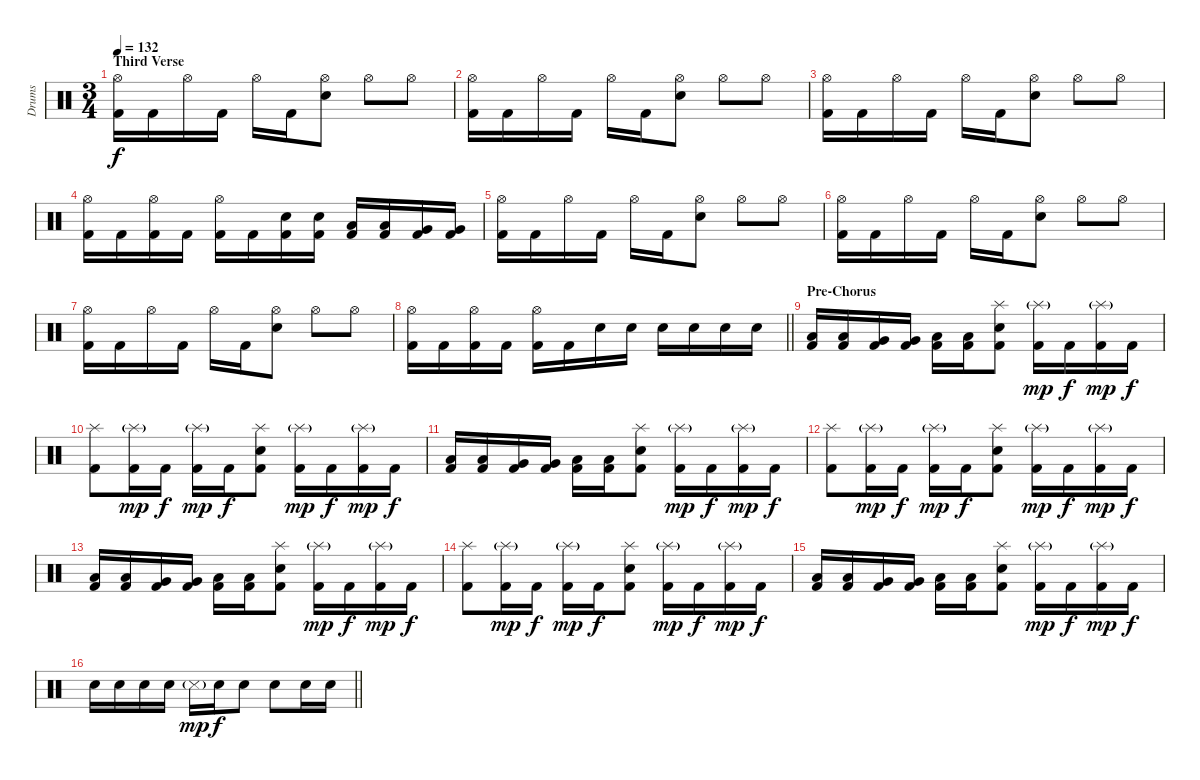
\track ("Drums" "Drums") {instrument percussion}
\staff {score}
\articulation defaults
\ts (3 4)
\section ("" "Third Verse")
\tempo 132
\clef neutral
\ks c
("Hi-Hat (open)" "Kick (hit) 2").16{dy f} "Kick (hit) 2".16 "Hi-Hat (open)".16 "Kick (hit) 2".16 "Hi-Hat (open)".16 "Kick (hit) 2".16 ("Hi-Hat (open)" "Snare (hit) 2").8 "Hi-Hat (open)".8 "Hi-Hat (open)".8 |
("Hi-Hat (open)" "Kick (hit) 2").16 "Kick (hit) 2".16 "Hi-Hat (open)".16 "Kick (hit) 2".16 "Hi-Hat (open)".16 "Kick (hit) 2".16 ("Hi-Hat (open)" "Snare (hit) 2").8 "Hi-Hat (open)".8 "Hi-Hat (open)".8 |
("Hi-Hat (open)" "Kick (hit) 2").16 "Kick (hit) 2".16 "Hi-Hat (open)".16 "Kick (hit) 2".16 "Hi-Hat (open)".16 "Kick (hit) 2".16 ("Hi-Hat (open)" "Snare (hit) 2").8 "Hi-Hat (open)".8 "Hi-Hat (open)".8 |
("Hi-Hat (open)" "Kick (hit) 2").16 "Kick (hit) 2".16 ("Hi-Hat (open)" "Kick (hit) 2").16 "Kick (hit) 2".16 ("Hi-Hat (open)" "Kick (hit) 2").16 "Kick (hit) 2".16 ("Snare (hit) 2" "Kick (hit) 2").16 ("Snare (hit) 2" "Kick (hit) 2").16 ("Low Tom (hit)" "Kick (hit) 2").16 ("Low Tom (hit)" "Kick (hit) 2").16 ("Very Low Tom (hit)" "Kick (hit) 2").16 ("Very Low Tom (hit)" "Kick (hit) 2").16 |
("Hi-Hat (open)" "Kick (hit) 2").16 "Kick (hit) 2".16 "Hi-Hat (open)".16 "Kick (hit) 2".16 "Hi-Hat (open)".16 "Kick (hit) 2".16 ("Hi-Hat (open)" "Snare (hit) 2").8 "Hi-Hat (open)".8 "Hi-Hat (open)".8 |
("Hi-Hat (open)" "Kick (hit) 2").16 "Kick (hit) 2".16 "Hi-Hat (open)".16 "Kick (hit) 2".16 "Hi-Hat (open)".16 "Kick (hit) 2".16 ("Hi-Hat (open)" "Snare (hit) 2").8 "Hi-Hat (open)".8 "Hi-Hat (open)".8 |
("Hi-Hat (open)" "Kick (hit) 2").16 "Kick (hit) 2".16 "Hi-Hat (open)".16 "Kick (hit) 2".16 "Hi-Hat (open)".16 "Kick (hit) 2".16 ("Hi-Hat (open)" "Snare (hit) 2").8 "Hi-Hat (open)".8 "Hi-Hat (open)".8 |
\barLineRight lightlight
("Hi-Hat (open)" "Kick (hit) 2").16 "Kick (hit) 2".16 ("Hi-Hat (open)" "Kick (hit) 2").16 "Kick (hit) 2".16 ("Hi-Hat (open)" "Kick (hit) 2").16 "Kick (hit) 2".16 "Snare (hit) 2".16 "Snare (hit) 2".16 "Snare (hit) 2".16 "Snare (hit) 2".16 "Snare (hit) 2".16 "Snare (hit) 2".16 |
\section ("" "Pre-Chorus")
("Low Tom (hit)" "Kick (hit) 2").16 ("Low Tom (hit)" "Kick (hit) 2").16 ("Very Low Tom (hit)" "Kick (hit) 2").16 ("Very Low Tom (hit)" "Kick (hit) 2").16 ("Low Floor Tom (hit)" "Kick (hit) 2").16 ("Low Floor Tom (hit)" "Kick (hit) 2").16 ("Splash (hit)" "Snare (hit) 2" "Kick (hit) 2").8 ("Splash (hit)"{g} "Kick (hit) 2").16{dy mp} "Kick (hit) 2".16{dy f} ("Splash (hit)"{g} "Kick (hit) 2").16{dy mp} "Kick (hit) 2".16{dy f} |
("Splash (hit)" "Kick (hit) 2").8 ("Splash (hit)"{g} "Kick (hit) 2").16{dy mp} "Kick (hit) 2".16{dy f} ("Splash (hit)"{g} "Kick (hit) 2").16{dy mp} "Kick (hit) 2".16{dy f} ("Splash (hit)" "Snare (hit) 2" "Kick (hit) 2").8 ("Splash (hit)"{g} "Kick (hit) 2").16{dy mp} "Kick (hit) 2".16{dy f} ("Splash (hit)"{g} "Kick (hit) 2").16{dy mp} "Kick (hit) 2".16{dy f} |
("Low Tom (hit)" "Kick (hit) 2").16 ("Low Tom (hit)" "Kick (hit) 2").16 ("Very Low Tom (hit)" "Kick (hit) 2").16 ("Very Low Tom (hit)" "Kick (hit) 2").16 ("Low Floor Tom (hit)" "Kick (hit) 2").16 ("Low Floor Tom (hit)" "Kick (hit) 2").16 ("Splash (hit)" "Snare (hit) 2" "Kick (hit) 2").8 ("Splash (hit)"{g} "Kick (hit) 2").16{dy mp} "Kick (hit) 2".16{dy f} ("Splash (hit)"{g} "Kick (hit) 2").16{dy mp} "Kick (hit) 2".16{dy f} |
("Splash (hit)" "Kick (hit) 2").8 ("Splash (hit)"{g} "Kick (hit) 2").16{dy mp} "Kick (hit) 2".16{dy f} ("Splash (hit)"{g} "Kick (hit) 2").16{dy mp} "Kick (hit) 2".16{dy f} ("Splash (hit)" "Snare (hit) 2" "Kick (hit) 2").8 ("Splash (hit)"{g} "Kick (hit) 2").16{dy mp} "Kick (hit) 2".16{dy f} ("Splash (hit)"{g} "Kick (hit) 2").16{dy mp} "Kick (hit) 2".16{dy f} |
("Low Tom (hit)" "Kick (hit) 2").16 ("Low Tom (hit)" "Kick (hit) 2").16 ("Very Low Tom (hit)" "Kick (hit) 2").16 ("Very Low Tom (hit)" "Kick (hit) 2").16 ("Low Floor Tom (hit)" "Kick (hit) 2").16 ("Low Floor Tom (hit)" "Kick (hit) 2").16 ("Splash (hit)" "Snare (hit) 2" "Kick (hit) 2").8 ("Splash (hit)"{g} "Kick (hit) 2").16{dy mp} "Kick (hit) 2".16{dy f} ("Splash (hit)"{g} "Kick (hit) 2").16{dy mp} "Kick (hit) 2".16{dy f} |
("Splash (hit)" "Kick (hit) 2").8 ("Splash (hit)"{g} "Kick (hit) 2").16{dy mp} "Kick (hit) 2".16{dy f} ("Splash (hit)"{g} "Kick (hit) 2").16{dy mp} "Kick (hit) 2".16{dy f} ("Splash (hit)" "Snare (hit) 2" "Kick (hit) 2").8 ("Splash (hit)"{g} "Kick (hit) 2").16{dy mp} "Kick (hit) 2".16{dy f} ("Splash (hit)"{g} "Kick (hit) 2").16{dy mp} "Kick (hit) 2".16{dy f} |
("Low Tom (hit)" "Kick (hit) 2").16 ("Low Tom (hit)" "Kick (hit) 2").16 ("Very Low Tom (hit)" "Kick (hit) 2").16 ("Very Low Tom (hit)" "Kick (hit) 2").16 ("Low Floor Tom (hit)" "Kick (hit) 2").16 ("Low Floor Tom (hit)" "Kick (hit) 2").16 ("Splash (hit)" "Snare (hit) 2" "Kick (hit) 2").8 ("Splash (hit)"{g} "Kick (hit) 2").16{dy mp} "Kick (hit) 2".16{dy f} ("Splash (hit)"{g} "Kick (hit) 2").16{dy mp} "Kick (hit) 2".16{dy f} |
\barLineRight lightlight "Snare (hit) 2".16 "Snare (hit) 2".16 "Snare (hit) 2".16 "Snare (hit) 2".16 "Snare (side stick) 3"{g}.16{dy mp} "Snare (hit) 2".16{dy f} "Snare (hit) 2".8 "Snare (hit) 2".8 "Snare (hit) 2".16 "Snare (hit) 2".16
